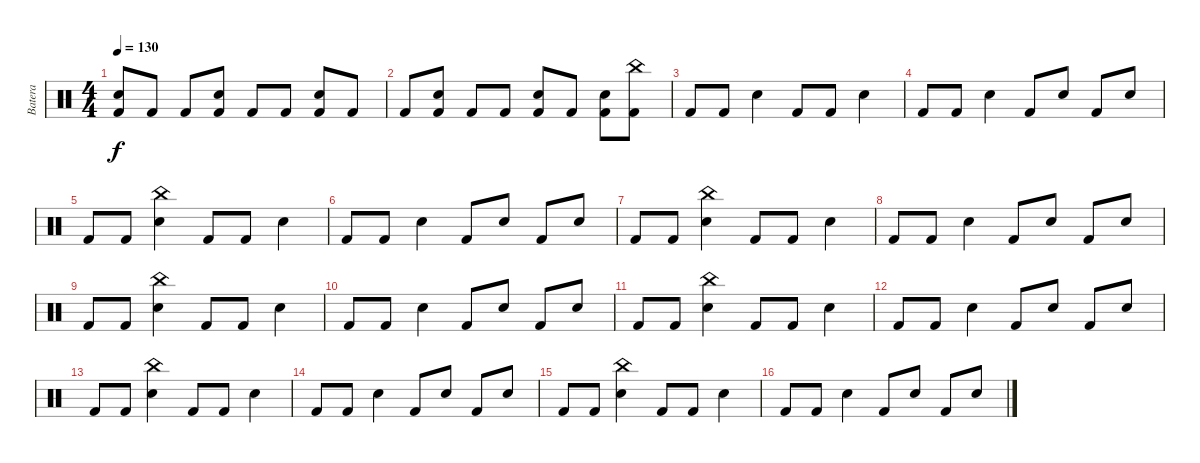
\track ("Batera" "Batera") {instrument percussion}
\staff {score}
\articulation defaults
\ts (4 4)
\tempo 130
\clef neutral
\ks c
("Kick (hit) 2" "Snare (hit) 2").8{dy f} "Kick (hit) 2".8 "Kick (hit) 2".8 ("Kick (hit) 2" "Snare (hit) 2").8 "Kick (hit) 2".8 "Kick (hit) 2".8 ("Kick (hit) 2" "Snare (hit) 2").8 "Kick (hit) 2".8 |
"Kick (hit) 2".8 ("Kick (hit) 2" "Snare (hit) 2").8 "Kick (hit) 2".8 "Kick (hit) 2".8 ("Kick (hit) 2" "Snare (hit) 2").8 "Kick (hit) 2".8 ("Kick (hit) 2" "Snare (hit) 2").8 ("Kick (hit) 2" "China (hit)").8 |
"Kick (hit) 2".8 "Kick (hit) 2".8 "Snare (hit) 2".4 "Kick (hit) 2".8 "Kick (hit) 2".8 "Snare (hit) 2".4 |
"Kick (hit) 2".8 "Kick (hit) 2".8 "Snare (hit) 2".4 "Kick (hit) 2".8 "Snare (hit) 2".8 "Kick (hit) 2".8 "Snare (hit) 2".8 |
"Kick (hit) 2".8 "Kick (hit) 2".8 ("Snare (hit) 2" "China (hit)").4 "Kick (hit) 2".8 "Kick (hit) 2".8 "Snare (hit) 2".4 |
"Kick (hit) 2".8 "Kick (hit) 2".8 "Snare (hit) 2".4 "Kick (hit) 2".8 "Snare (hit) 2".8 "Kick (hit) 2".8 "Snare (hit) 2".8 |
"Kick (hit) 2".8 "Kick (hit) 2".8 ("Snare (hit) 2" "China (hit)").4 "Kick (hit) 2".8 "Kick (hit) 2".8 "Snare (hit) 2".4 |
"Kick (hit) 2".8 "Kick (hit) 2".8 "Snare (hit) 2".4 "Kick (hit) 2".8 "Snare (hit) 2".8 "Kick (hit) 2".8 "Snare (hit) 2".8 |
"Kick (hit) 2".8 "Kick (hit) 2".8 ("Snare (hit) 2" "China (hit)").4 "Kick (hit) 2".8 "Kick (hit) 2".8 "Snare (hit) 2".4 |
"Kick (hit) 2".8 "Kick (hit) 2".8 "Snare (hit) 2".4 "Kick (hit) 2".8 "Snare (hit) 2".8 "Kick (hit) 2".8 "Snare (hit) 2".8 |
"Kick (hit) 2".8 "Kick (hit) 2".8 ("Snare (hit) 2" "China (hit)").4 "Kick (hit) 2".8 "Kick (hit) 2".8 "Snare (hit) 2".4 |
"Kick (hit) 2".8 "Kick (hit) 2".8 "Snare (hit) 2".4 "Kick (hit) 2".8 "Snare (hit) 2".8 "Kick (hit) 2".8 "Snare (hit) 2".8 |
"Kick (hit) 2".8 "Kick (hit) 2".8 ("Snare (hit) 2" "China (hit)").4 "Kick (hit) 2".8 "Kick (hit) 2".8 "Snare (hit) 2".4 |
"Kick (hit) 2".8 "Kick (hit) 2".8 "Snare (hit) 2".4 "Kick (hit) 2".8 "Snare (hit) 2".8 "Kick (hit) 2".8 "Snare (hit) 2".8 |
"Kick (hit) 2".8 "Kick (hit) 2".8 ("Snare (hit) 2" "China (hit)").4 "Kick (hit) 2".8 "Kick (hit) 2".8 "Snare (hit) 2".4 |
"Kick (hit) 2".8 "Kick (hit) 2".8 "Snare (hit) 2".4 "Kick (hit) 2".8 "Snare (hit) 2".8 "Kick (hit) 2".8 "Snare (hit) 2".8
